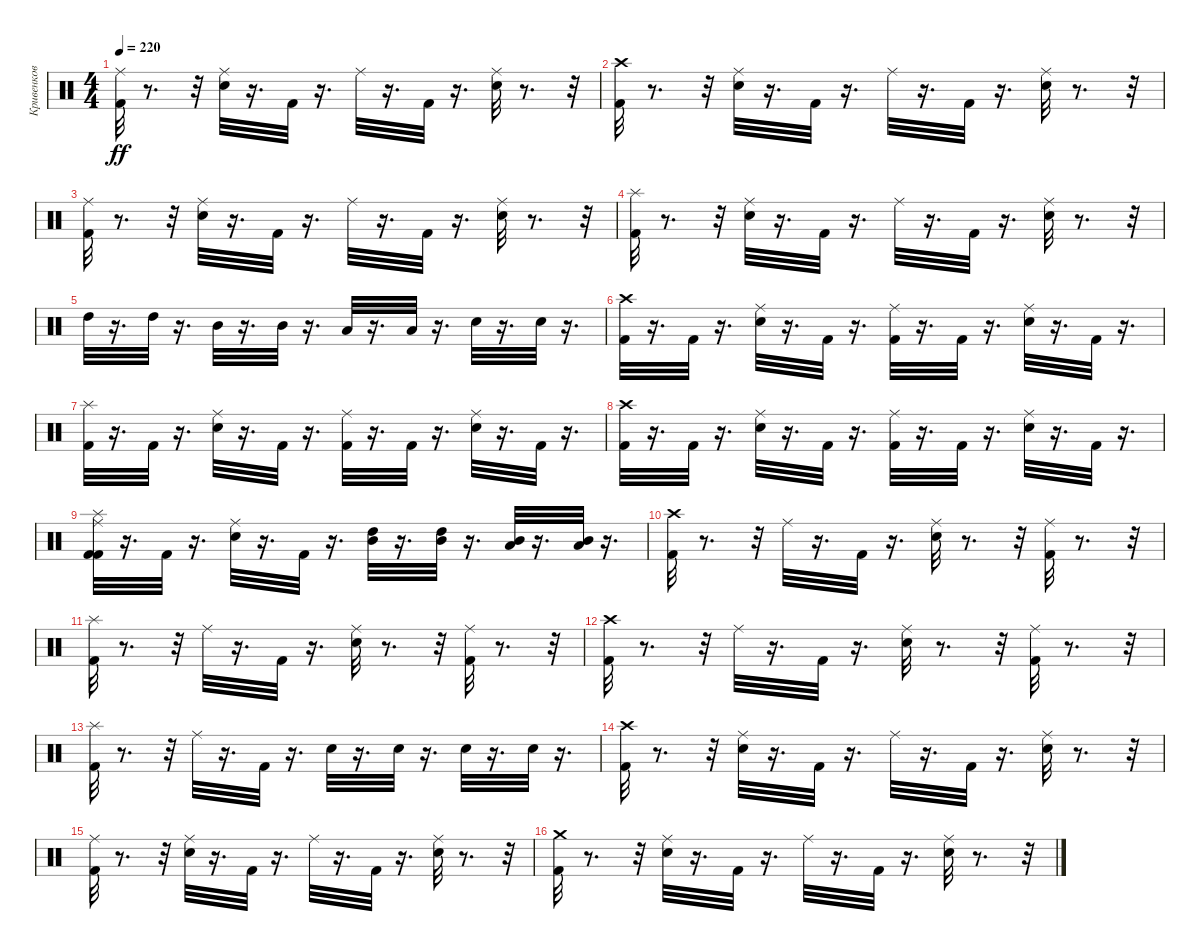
\track ("Кривенков" "Кривенков") {instrument percussion}
\staff {score}
\articulation defaults
\ts (4 4)
\tempo 220
\clef neutral
\ks c
("Kick (hit) 2" "Ride (middle)").32{dy ff} r.8{d} r.32 ("Electric Snare (hit)" "Ride (middle)").32 r.16{d} "Kick (hit) 2".32 r.16{d} "Ride (middle)".32 r.16{d} "Kick (hit) 2".32 r.16{d} ("Electric Snare (hit)" "Ride (middle)").32 r.8{d} r.32 |
("Crash high (hit)" "Kick (hit) 2").32 r.8{d} r.32 ("Ride (middle)" "Electric Snare (hit)").32 r.16{d} "Kick (hit) 2".32 r.16{d} "Ride (middle)".32 r.16{d} "Kick (hit) 2".32 r.16{d} ("Ride (middle)" "Electric Snare (hit)").32 r.8{d} r.32 |
("Kick (hit) 2" "Ride (middle)").32 r.8{d} r.32 ("Electric Snare (hit)" "Ride (middle)").32 r.16{d} "Kick (hit) 2".32 r.16{d} "Ride (middle)".32 r.16{d} "Kick (hit) 2".32 r.16{d} ("Electric Snare (hit)" "Ride (middle)").32 r.8{d} r.32 |
("Splash (hit)" "Kick (hit) 2").32 r.8{d} r.32 ("Ride (middle)" "Electric Snare (hit)").32 r.16{d} "Kick (hit) 2".32 r.16{d} "Ride (middle)".32 r.16{d} "Kick (hit) 2".32 r.16{d} ("Ride (middle)" "Electric Snare (hit)").32 r.8{d} r.32 |
"High Tom (hit)".32 r.16{d} "High Tom (hit)".32 r.16{d} "Mid Tom (hit)".32 r.16{d} "Mid Tom (hit)".32 r.16{d} "Low Tom (hit)".32 r.16{d} "Low Tom (hit)".32 r.16{d} "Snare (hit) 2".32 r.16{d} "Snare (hit) 2".32 r.16{d} |
("Crash high (hit)" "Kick (hit) 2").32 r.16{d} "Kick (hit) 2".32 r.16{d} ("Ride (middle)" "Electric Snare (hit)").32 r.16{d} "Kick (hit) 2".32 r.16{d} ("Ride (middle)" "Kick (hit) 2").32 r.16{d} "Kick (hit) 2".32 r.16{d} ("Electric Snare (hit)" "Ride (middle)").32 r.16{d} "Kick (hit) 2".32 r.16{d} |
("Kick (hit) 2" "Splash (hit)").32 r.16{d} "Kick (hit) 2".32 r.16{d} ("Electric Snare (hit)" "Ride (middle)").32 r.16{d} "Kick (hit) 2".32 r.16{d} ("Kick (hit) 2" "Ride (middle)").32 r.16{d} "Kick (hit) 2".32 r.16{d} ("Electric Snare (hit)" "Ride (middle)").32 r.16{d} "Kick (hit) 2".32 r.16{d} |
("Crash high (hit)" "Kick (hit) 2").32 r.16{d} "Kick (hit) 2".32 r.16{d} ("Ride (middle)" "Electric Snare (hit)").32 r.16{d} "Kick (hit) 2".32 r.16{d} ("Ride (middle)" "Kick (hit) 2").32 r.16{d} "Kick (hit) 2".32 r.16{d} ("Electric Snare (hit)" "Ride (middle)").32 r.16{d} "Kick (hit) 2".32 r.16{d} |
("Ride (middle)" "Kick (hit) 2" "Kick (hit) 2" "Splash (hit)").32 r.16{d} "Kick (hit) 2".32 r.16{d} ("Ride (middle)" "Electric Snare (hit)").32 r.16{d} "Kick (hit) 2".32 r.16{d} ("Mid Tom (hit)" "High Tom (hit)").32 r.16{d} ("Mid Tom (hit)" "High Tom (hit)").32 r.16{d} ("Low Tom (hit)" "Mid Tom (hit)").32 r.16{d} ("Low Tom (hit)" "Mid Tom (hit)").32 r.16{d} |
("Kick (hit) 2" "Crash high (hit)").32 r.8{d} r.32 "Ride (middle)".32 r.16{d} "Kick (hit) 2".32 r.16{d} ("Electric Snare (hit)" "Ride (middle)").32 r.8{d} r.32 ("Kick (hit) 2" "Ride (middle)").32 r.8{d} r.32 |
("Splash (hit)" "Kick (hit) 2").32 r.8{d} r.32 "Ride (middle)".32 r.16{d} "Kick (hit) 2".32 r.16{d} ("Ride (middle)" "Electric Snare (hit)").32 r.8{d} r.32 ("Ride (middle)" "Kick (hit) 2").32 r.8{d} r.32 |
("Kick (hit) 2" "Crash high (hit)").32 r.8{d} r.32 "Ride (middle)".32 r.16{d} "Kick (hit) 2".32 r.16{d} ("Electric Snare (hit)" "Ride (middle)").32 r.8{d} r.32 ("Kick (hit) 2" "Ride (middle)").32 r.8{d} r.32 |
("Splash (hit)" "Kick (hit) 2").32 r.8{d} r.32 "Ride (middle)".32 r.16{d} "Kick (hit) 2".32 r.16{d} "Electric Snare (hit)".32 r.16{d} "Electric Snare (hit)".32 r.16{d} "Electric Snare (hit)".32 r.16{d} "Electric Snare (hit)".32 r.16{d} |
("Crash high (hit)" "Kick (hit) 2").32 r.8{d} r.32 ("Ride (middle)" "Electric Snare (hit)").32 r.16{d} "Kick (hit) 2".32 r.16{d} "Ride (middle)".32 r.16{d} "Kick (hit) 2".32 r.16{d} ("Ride (middle)" "Electric Snare (hit)").32 r.8{d} r.32 |
("Kick (hit) 2" "Ride (middle)").32 r.8{d} r.32 ("Electric Snare (hit)" "Ride (middle)").32 r.16{d} "Kick (hit) 2".32 r.16{d} "Ride (middle)".32 r.16{d} "Kick (hit) 2".32 r.16{d} ("Electric Snare (hit)" "Ride (middle)").32 r.8{d} r.32 |
("Crash medium (hit)" "Kick (hit) 2").32 r.8{d} r.32 ("Ride (middle)" "Electric Snare (hit)").32 r.16{d} "Kick (hit) 2".32 r.16{d} "Ride (middle)".32 r.16{d} "Kick (hit) 2".32 r.16{d} ("Ride (middle)" "Electric Snare (hit)").32 r.8{d} r.32
